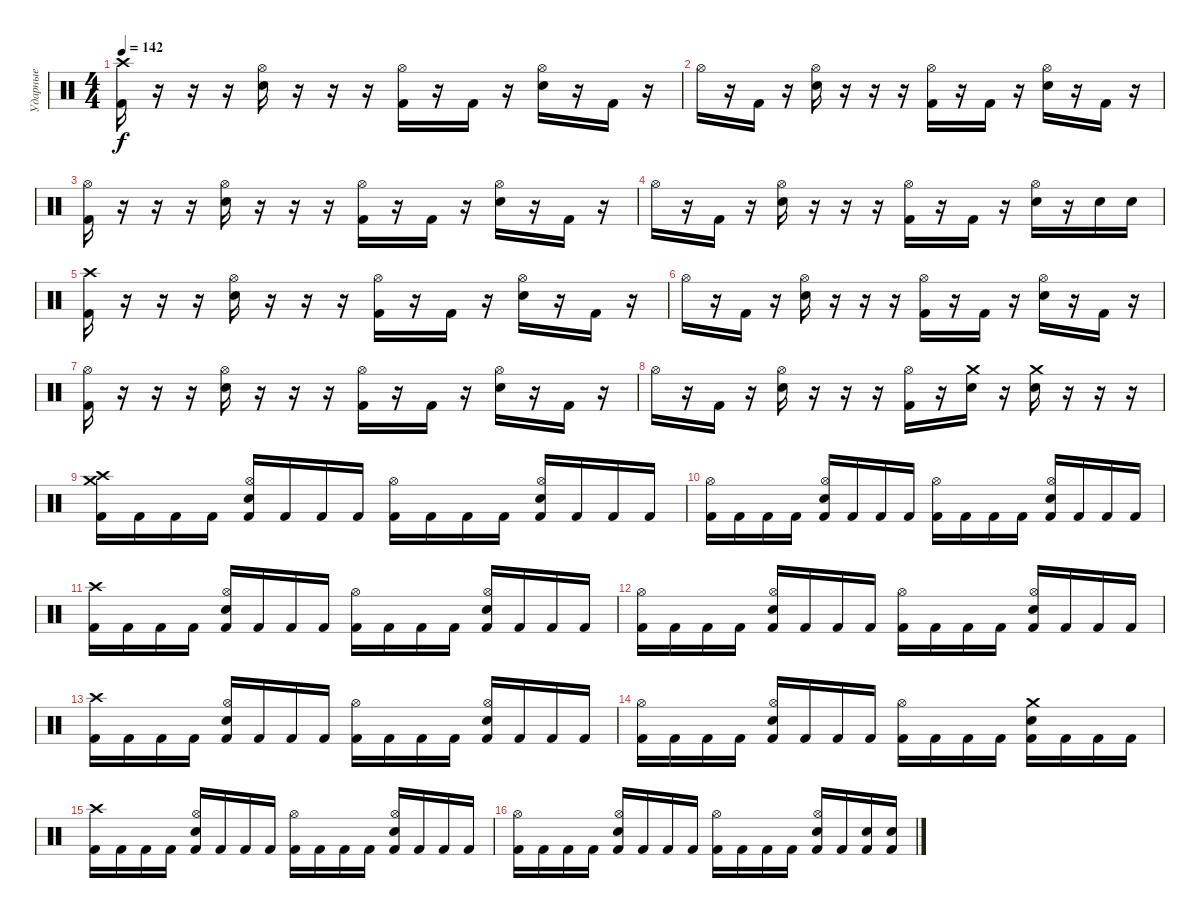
\track ("Ударные" "Ударные") {instrument percussion}
\staff {score}
\articulation defaults
\ts (4 4)
\tempo 142
\clef neutral
\ks c
("Crash high (hit)" "Kick (hit) 2").16{dy f} r.16 r.16 r.16 ("Hi-Hat (open)" "Electric Snare (hit)").16 r.16 r.16 r.16 ("Hi-Hat (open)" "Kick (hit) 2").16 r.16 "Kick (hit) 2".16 r.16 ("Hi-Hat (open)" "Electric Snare (hit)").16 r.16 "Kick (hit) 2".16 r.16 |
"Hi-Hat (open)".16 r.16 "Kick (hit) 2".16 r.16 ("Hi-Hat (open)" "Electric Snare (hit)").16 r.16 r.16 r.16 ("Hi-Hat (open)" "Kick (hit) 2").16 r.16 "Kick (hit) 2".16 r.16 ("Hi-Hat (open)" "Electric Snare (hit)").16 r.16 "Kick (hit) 2".16 r.16 |
("Hi-Hat (open)" "Kick (hit) 2").16 r.16 r.16 r.16 ("Hi-Hat (open)" "Electric Snare (hit)").16 r.16 r.16 r.16 ("Hi-Hat (open)" "Kick (hit) 2").16 r.16 "Kick (hit) 2".16 r.16 ("Hi-Hat (open)" "Electric Snare (hit)").16 r.16 "Kick (hit) 2".16 r.16 |
"Hi-Hat (open)".16 r.16 "Kick (hit) 2".16 r.16 ("Hi-Hat (open)" "Electric Snare (hit)").16 r.16 r.16 r.16 ("Hi-Hat (open)" "Kick (hit) 2").16 r.16 "Kick (hit) 2".16 r.16 ("Hi-Hat (open)" "Electric Snare (hit)").16 r.16 "Electric Snare (hit)".16 "Electric Snare (hit)".16 |
("Crash high (hit)" "Kick (hit) 2").16 r.16 r.16 r.16 ("Hi-Hat (open)" "Electric Snare (hit)").16 r.16 r.16 r.16 ("Hi-Hat (open)" "Kick (hit) 2").16 r.16 "Kick (hit) 2".16 r.16 ("Hi-Hat (open)" "Electric Snare (hit)").16 r.16 "Kick (hit) 2".16 r.16 |
"Hi-Hat (open)".16 r.16 "Kick (hit) 2".16 r.16 ("Hi-Hat (open)" "Electric Snare (hit)").16 r.16 r.16 r.16 ("Hi-Hat (open)" "Kick (hit) 2").16 r.16 "Kick (hit) 2".16 r.16 ("Hi-Hat (open)" "Electric Snare (hit)").16 r.16 "Kick (hit) 2".16 r.16 |
("Hi-Hat (open)" "Kick (hit) 2").16 r.16 r.16 r.16 ("Hi-Hat (open)" "Electric Snare (hit)").16 r.16 r.16 r.16 ("Hi-Hat (open)" "Kick (hit) 2").16 r.16 "Kick (hit) 2".16 r.16 ("Hi-Hat (open)" "Electric Snare (hit)").16 r.16 "Kick (hit) 2".16 r.16 |
"Hi-Hat (open)".16 r.16 "Kick (hit) 2".16 r.16 ("Hi-Hat (open)" "Electric Snare (hit)").16 r.16 r.16 r.16 ("Hi-Hat (open)" "Kick (hit) 2").16 r.16 ("Crash medium (hit)" "Electric Snare (hit)").16 r.16 ("Crash medium (hit)" "Electric Snare (hit)").16 r.16 r.16 r.16 |
("Crash medium (hit)" "Crash high (hit)" "Kick (hit) 2").16 "Kick (hit) 2".16 "Kick (hit) 2".16 "Kick (hit) 2".16 ("Hi-Hat (open)" "Electric Snare (hit)" "Kick (hit) 2").16 "Kick (hit) 2".16 "Kick (hit) 2".16 "Kick (hit) 2".16 ("Hi-Hat (open)" "Kick (hit) 2").16 "Kick (hit) 2".16 "Kick (hit) 2".16 "Kick (hit) 2".16 ("Hi-Hat (open)" "Electric Snare (hit)" "Kick (hit) 2").16 "Kick (hit) 2".16 "Kick (hit) 2".16 "Kick (hit) 2".16 |
("Hi-Hat (open)" "Kick (hit) 2").16 "Kick (hit) 2".16 "Kick (hit) 2".16 "Kick (hit) 2".16 ("Hi-Hat (open)" "Electric Snare (hit)" "Kick (hit) 2").16 "Kick (hit) 2".16 "Kick (hit) 2".16 "Kick (hit) 2".16 ("Hi-Hat (open)" "Kick (hit) 2").16 "Kick (hit) 2".16 "Kick (hit) 2".16 "Kick (hit) 2".16 ("Hi-Hat (open)" "Electric Snare (hit)" "Kick (hit) 2").16 "Kick (hit) 2".16 "Kick (hit) 2".16 "Kick (hit) 2".16 |
("Crash high (hit)" "Kick (hit) 2").16 "Kick (hit) 2".16 "Kick (hit) 2".16 "Kick (hit) 2".16 ("Hi-Hat (open)" "Electric Snare (hit)" "Kick (hit) 2").16 "Kick (hit) 2".16 "Kick (hit) 2".16 "Kick (hit) 2".16 ("Hi-Hat (open)" "Kick (hit) 2").16 "Kick (hit) 2".16 "Kick (hit) 2".16 "Kick (hit) 2".16 ("Hi-Hat (open)" "Electric Snare (hit)" "Kick (hit) 2").16 "Kick (hit) 2".16 "Kick (hit) 2".16 "Kick (hit) 2".16 |
("Hi-Hat (open)" "Kick (hit) 2").16 "Kick (hit) 2".16 "Kick (hit) 2".16 "Kick (hit) 2".16 ("Hi-Hat (open)" "Electric Snare (hit)" "Kick (hit) 2").16 "Kick (hit) 2".16 "Kick (hit) 2".16 "Kick (hit) 2".16 ("Hi-Hat (open)" "Kick (hit) 2").16 "Kick (hit) 2".16 "Kick (hit) 2".16 "Kick (hit) 2".16 ("Hi-Hat (open)" "Electric Snare (hit)" "Kick (hit) 2").16 "Kick (hit) 2".16 "Kick (hit) 2".16 "Kick (hit) 2".16 |
("Crash high (hit)" "Kick (hit) 2").16 "Kick (hit) 2".16 "Kick (hit) 2".16 "Kick (hit) 2".16 ("Hi-Hat (open)" "Electric Snare (hit)" "Kick (hit) 2").16 "Kick (hit) 2".16 "Kick (hit) 2".16 "Kick (hit) 2".16 ("Hi-Hat (open)" "Kick (hit) 2").16 "Kick (hit) 2".16 "Kick (hit) 2".16 "Kick (hit) 2".16 ("Hi-Hat (open)" "Electric Snare (hit)" "Kick (hit) 2").16 "Kick (hit) 2".16 "Kick (hit) 2".16 "Kick (hit) 2".16 |
("Hi-Hat (open)" "Kick (hit) 2").16 "Kick (hit) 2".16 "Kick (hit) 2".16 "Kick (hit) 2".16 ("Hi-Hat (open)" "Electric Snare (hit)" "Kick (hit) 2").16 "Kick (hit) 2".16 "Kick (hit) 2".16 "Kick (hit) 2".16 ("Hi-Hat (open)" "Kick (hit) 2").16 "Kick (hit) 2".16 "Kick (hit) 2".16 "Kick (hit) 2".16 ("Crash medium (hit)" "Electric Snare (hit)" "Kick (hit) 2").16 "Kick (hit) 2".16 "Kick (hit) 2".16 "Kick (hit) 2".16 |
("Crash high (hit)" "Kick (hit) 2").16 "Kick (hit) 2".16 "Kick (hit) 2".16 "Kick (hit) 2".16 ("Hi-Hat (open)" "Electric Snare (hit)" "Kick (hit) 2").16 "Kick (hit) 2".16 "Kick (hit) 2".16 "Kick (hit) 2".16 ("Hi-Hat (open)" "Kick (hit) 2").16 "Kick (hit) 2".16 "Kick (hit) 2".16 "Kick (hit) 2".16 ("Hi-Hat (open)" "Electric Snare (hit)" "Kick (hit) 2").16 "Kick (hit) 2".16 "Kick (hit) 2".16 "Kick (hit) 2".16 |
("Hi-Hat (open)" "Kick (hit) 2").16 "Kick (hit) 2".16 "Kick (hit) 2".16 "Kick (hit) 2".16 ("Hi-Hat (open)" "Electric Snare (hit)" "Kick (hit) 2").16 "Kick (hit) 2".16 "Kick (hit) 2".16 "Kick (hit) 2".16 ("Hi-Hat (open)" "Kick (hit) 2").16 "Kick (hit) 2".16 "Kick (hit) 2".16 "Kick (hit) 2".16 ("Hi-Hat (open)" "Electric Snare (hit)" "Kick (hit) 2").16 "Kick (hit) 2".16 ("Electric Snare (hit)" "Kick (hit) 2").16 ("Electric Snare (hit)" "Kick (hit) 2").16
